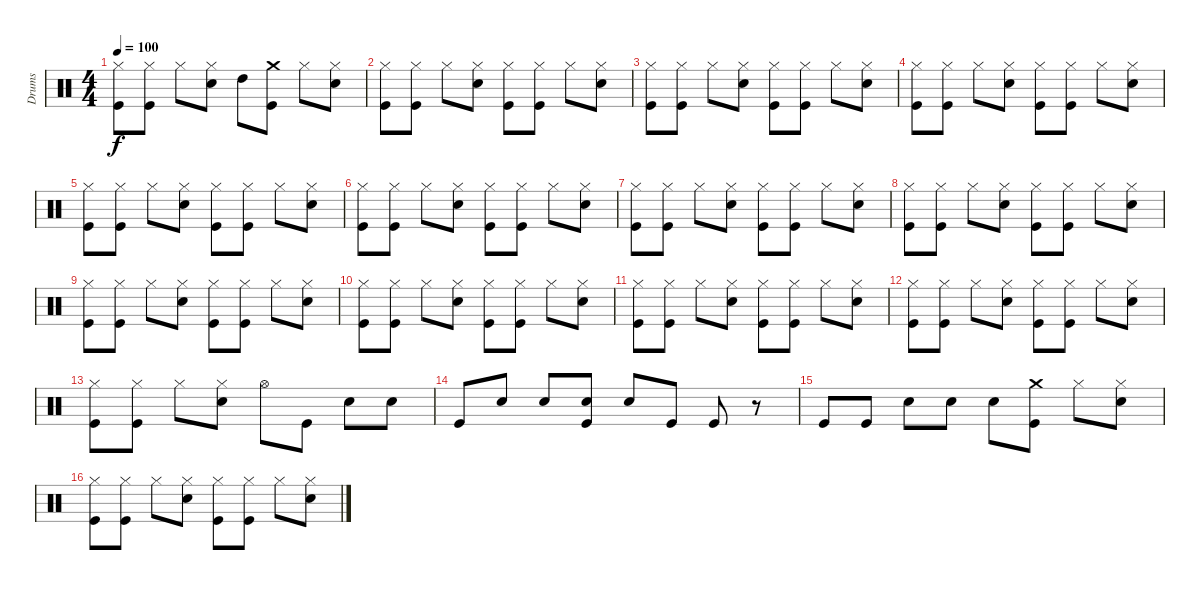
\track ("Drums" "Drums") {instrument percussion}
\staff {score}
\articulation defaults
\ts (4 4)
\tempo 100
\clef neutral
\ks c
("Hi-Hat (closed)" "Kick (hit)").8{dy f} ("Hi-Hat (closed)" "Kick (hit)").8 "Hi-Hat (closed)".8 ("Hi-Hat (closed)" "Snare (hit) 2").8 "High Tom (hit)".8 ("Crash medium (hit)" "Kick (hit)").8 "Hi-Hat (closed)".8 ("Hi-Hat (closed)" "Snare (hit) 2").8 |
("Hi-Hat (closed)" "Kick (hit)").8 ("Hi-Hat (closed)" "Kick (hit)").8 "Hi-Hat (closed)".8 ("Hi-Hat (closed)" "Snare (hit) 2").8 ("Hi-Hat (closed)" "Kick (hit)").8 ("Hi-Hat (closed)" "Kick (hit)").8 "Hi-Hat (closed)".8 ("Hi-Hat (closed)" "Snare (hit) 2").8 |
("Hi-Hat (closed)" "Kick (hit)").8 ("Hi-Hat (closed)" "Kick (hit)").8 "Hi-Hat (closed)".8 ("Hi-Hat (closed)" "Snare (hit) 2").8 ("Hi-Hat (closed)" "Kick (hit)").8 ("Hi-Hat (closed)" "Kick (hit)").8 "Hi-Hat (closed)".8 ("Hi-Hat (closed)" "Snare (hit) 2").8 |
("Hi-Hat (closed)" "Kick (hit)").8 ("Hi-Hat (closed)" "Kick (hit)").8 "Hi-Hat (closed)".8 ("Hi-Hat (closed)" "Snare (hit) 2").8 ("Hi-Hat (closed)" "Kick (hit)").8 ("Hi-Hat (closed)" "Kick (hit)").8 "Hi-Hat (closed)".8 ("Hi-Hat (closed)" "Snare (hit) 2").8 |
("Hi-Hat (closed)" "Kick (hit)").8 ("Hi-Hat (closed)" "Kick (hit)").8 "Hi-Hat (closed)".8 ("Hi-Hat (closed)" "Snare (hit) 2").8 ("Hi-Hat (closed)" "Kick (hit)").8 ("Hi-Hat (closed)" "Kick (hit)").8 "Hi-Hat (closed)".8 ("Hi-Hat (closed)" "Snare (hit) 2").8 |
("Hi-Hat (closed)" "Kick (hit)").8 ("Hi-Hat (closed)" "Kick (hit)").8 "Hi-Hat (closed)".8 ("Hi-Hat (closed)" "Snare (hit) 2").8 ("Hi-Hat (closed)" "Kick (hit)").8 ("Hi-Hat (closed)" "Kick (hit)").8 "Hi-Hat (closed)".8 ("Hi-Hat (closed)" "Snare (hit) 2").8 |
("Hi-Hat (closed)" "Kick (hit)").8 ("Hi-Hat (closed)" "Kick (hit)").8 "Hi-Hat (closed)".8 ("Hi-Hat (closed)" "Snare (hit) 2").8 ("Hi-Hat (closed)" "Kick (hit)").8 ("Hi-Hat (closed)" "Kick (hit)").8 "Hi-Hat (closed)".8 ("Hi-Hat (closed)" "Snare (hit) 2").8 |
("Hi-Hat (closed)" "Kick (hit)").8 ("Hi-Hat (closed)" "Kick (hit)").8 "Hi-Hat (closed)".8 ("Hi-Hat (closed)" "Snare (hit) 2").8 ("Hi-Hat (closed)" "Kick (hit)").8 ("Hi-Hat (closed)" "Kick (hit)").8 "Hi-Hat (closed)".8 ("Hi-Hat (closed)" "Snare (hit) 2").8 |
("Hi-Hat (closed)" "Kick (hit)").8 ("Hi-Hat (closed)" "Kick (hit)").8 "Hi-Hat (closed)".8 ("Hi-Hat (closed)" "Snare (hit) 2").8 ("Hi-Hat (closed)" "Kick (hit)").8 ("Hi-Hat (closed)" "Kick (hit)").8 "Hi-Hat (closed)".8 ("Hi-Hat (closed)" "Snare (hit) 2").8 |
("Hi-Hat (closed)" "Kick (hit)").8 ("Hi-Hat (closed)" "Kick (hit)").8 "Hi-Hat (closed)".8 ("Hi-Hat (closed)" "Snare (hit) 2").8 ("Hi-Hat (closed)" "Kick (hit)").8 ("Hi-Hat (closed)" "Kick (hit)").8 "Hi-Hat (closed)".8 ("Hi-Hat (closed)" "Snare (hit) 2").8 |
("Hi-Hat (closed)" "Kick (hit)").8 ("Hi-Hat (closed)" "Kick (hit)").8 "Hi-Hat (closed)".8 ("Hi-Hat (closed)" "Snare (hit) 2").8 ("Hi-Hat (closed)" "Kick (hit)").8 ("Hi-Hat (closed)" "Kick (hit)").8 "Hi-Hat (closed)".8 ("Hi-Hat (closed)" "Snare (hit) 2").8 |
("Hi-Hat (closed)" "Kick (hit)").8 ("Hi-Hat (closed)" "Kick (hit)").8 "Hi-Hat (closed)".8 ("Hi-Hat (closed)" "Snare (hit) 2").8 ("Hi-Hat (closed)" "Kick (hit)").8 ("Hi-Hat (closed)" "Kick (hit)").8 "Hi-Hat (closed)".8 ("Hi-Hat (closed)" "Snare (hit) 2").8 |
("Hi-Hat (closed)" "Kick (hit)").8 ("Hi-Hat (closed)" "Kick (hit)").8 "Hi-Hat (closed)".8 ("Hi-Hat (closed)" "Snare (hit) 2").8 "Hi-Hat (open)".8 "Kick (hit)".8 "Hand Clap (hit)".8 "Hand Clap (hit)".8 |
"Kick (hit)".8 "Hand Clap (hit)".8 "Hand Clap (hit)".8 ("Snare (hit) 2" "Kick (hit)").8 "Hand Clap (hit)".8 "Kick (hit)".8 "Kick (hit)".8 r.8 |
"Kick (hit)".8 "Kick (hit)".8 "Snare (hit) 2".8 "Snare (hit) 2".8 "Snare (hit) 2".8 ("Crash medium (hit)" "Kick (hit)").8 "Hi-Hat (closed)".8 ("Hi-Hat (closed)" "Snare (hit) 2").8 |
("Hi-Hat (closed)" "Kick (hit)").8 ("Hi-Hat (closed)" "Kick (hit)").8 "Hi-Hat (closed)".8 ("Hi-Hat (closed)" "Snare (hit) 2").8 ("Hi-Hat (closed)" "Kick (hit)").8 ("Hi-Hat (closed)" "Kick (hit)").8 "Hi-Hat (closed)".8 ("Hi-Hat (closed)" "Snare (hit) 2").8
